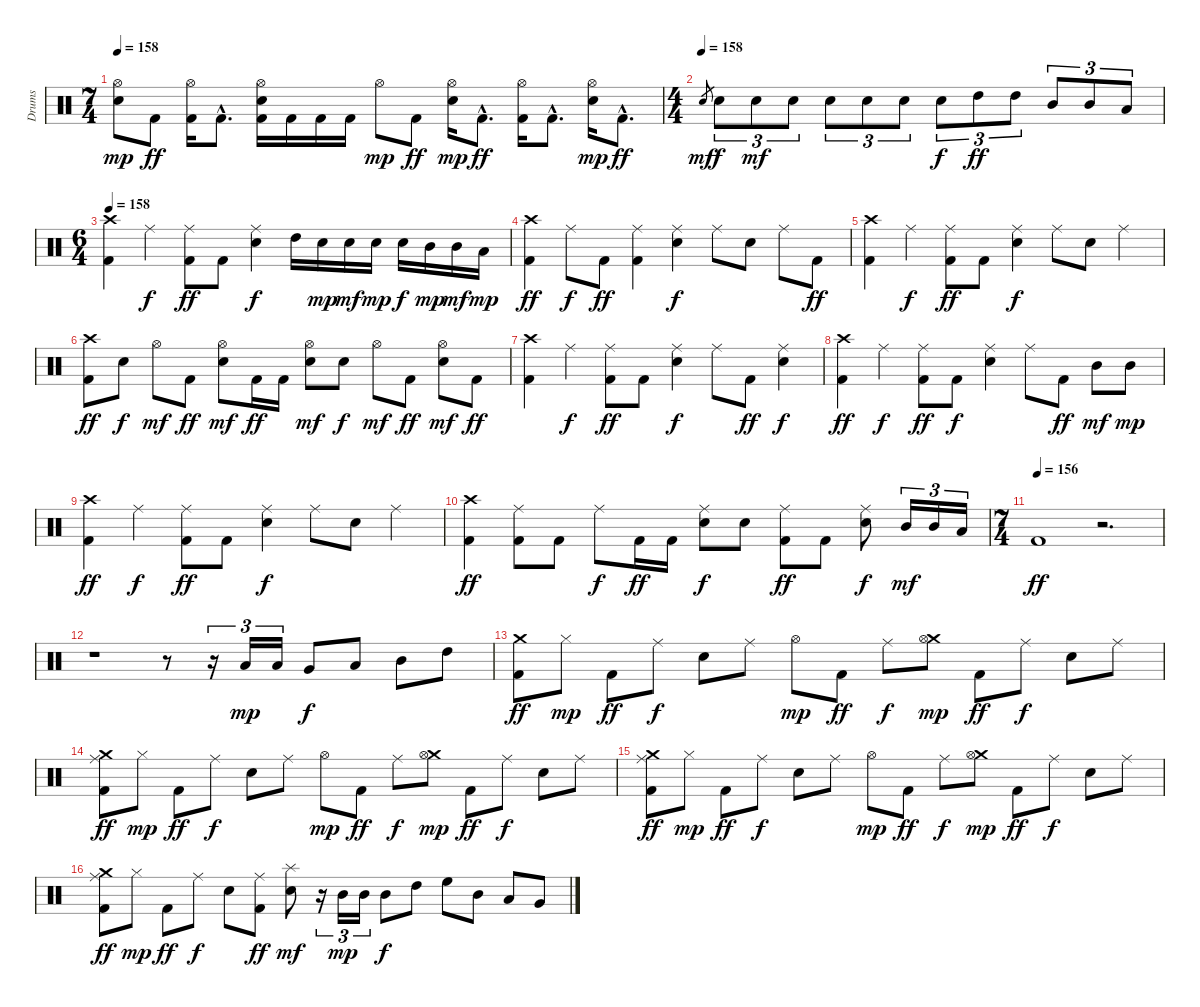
\track ("Drums" "Drums") {instrument percussion}
\staff {score}
\articulation defaults
\ts (7 4)
\tempo 158
\clef neutral
\ks c
("Hi-Hat (open)" "Electric Snare (hit)").8{dy mp} "Kick (hit) 2".8{dy ff} ("Hi-Hat (open)" "Kick (hit) 2").16 "Kick (hit) 2"{hac}.8{d} ("Hi-Hat (open)" "Electric Snare (hit)" "Kick (hit) 2").16 "Kick (hit) 2".16 "Kick (hit) 2".16 "Kick (hit) 2".16 "Hi-Hat (open)".8{dy mp} "Kick (hit) 2".8{dy ff} ("Hi-Hat (open)" "Electric Snare (hit)").16{dy mp} "Kick (hit) 2"{hac}.8{d dy ff} ("Hi-Hat (open)" "Kick (hit) 2").16 "Kick (hit) 2"{hac}.8{d} ("Hi-Hat (open)" "Electric Snare (hit)").16{dy mp} "Kick (hit) 2"{hac}.8{d dy ff} |
\ts (4 4)
\tempo (158)
"Electric Snare (hit)".8{gr dy mf} "Electric Snare (hit)".8{tu (3 2) dy f} "Electric Snare (hit)".8{tu (3 2) dy mf} "Electric Snare (hit)".8{tu (3 2)} "Electric Snare (hit)".8{tu (3 2)} "Electric Snare (hit)".8{tu (3 2)} "Electric Snare (hit)".8{tu (3 2)} "Electric Snare (hit)".8{tu (3 2) dy f} "High Tom (hit)".8{tu (3 2) dy ff} "High Tom (hit)".8{tu (3 2)} "Mid Tom (hit)".8{tu (3 2)} "Mid Tom (hit)".8{tu (3 2)} "Low Tom (hit)".8{tu (3 2)} |
\ts (6 4)
\tempo 158
("Crash high (hit)" "Kick (hit) 2").4 "Ride (middle)".4{dy f} ("Ride (middle)" "Kick (hit) 2").8{dy ff} "Kick (hit) 2".8 ("Ride (middle)" "Electric Snare (hit)").4{dy f} "High Tom (hit)".16 "Electric Snare (hit)".16{dy mp} "Electric Snare (hit)".16{dy mf} "Electric Snare (hit)".16{dy mp} "Electric Snare (hit)".16{dy f} "Mid Tom (hit)".16{dy mp} "Mid Tom (hit)".16{dy mf} "Low Tom (hit)".16{dy mp} |
("Crash high (hit)" "Kick (hit) 2").4{dy ff} "Ride (middle)".8{dy f} "Kick (hit) 2".8{dy ff} ("Ride (middle)" "Kick (hit) 2").4 ("Ride (middle)" "Electric Snare (hit)").4{dy f} "Ride (middle)".8 "Electric Snare (hit)".8 "Ride (middle)".8 "Kick (hit) 2".8{dy ff} |
("Crash high (hit)" "Kick (hit) 2").4 "Ride (middle)".4{dy f} ("Ride (middle)" "Kick (hit) 2").8{dy ff} "Kick (hit) 2".8 ("Ride (middle)" "Electric Snare (hit)").4{dy f} "Ride (middle)".8 "Electric Snare (hit)".8 "Ride (middle)".4 |
("Crash high (hit)" "Kick (hit) 2").8{dy ff} "Electric Snare (hit)".8{dy f} "Hi-Hat (open)".8{dy mf} "Kick (hit) 2".8{dy ff} ("Hi-Hat (open)" "Electric Snare (hit)").8{dy mf} "Kick (hit) 2".16{dy ff} "Kick (hit) 2".16 ("Hi-Hat (open)" "Electric Snare (hit)").8{dy mf} "Electric Snare (hit)".8{dy f} "Hi-Hat (open)".8{dy mf} "Kick (hit) 2".8{dy ff} ("Hi-Hat (open)" "Electric Snare (hit)").8{dy mf} "Kick (hit) 2".8{dy ff} |
("Crash high (hit)" "Kick (hit) 2").4 "Ride (middle)".4{dy f} ("Ride (middle)" "Kick (hit) 2").8{dy ff} "Kick (hit) 2".8 ("Ride (middle)" "Electric Snare (hit)").4{dy f} "Ride (middle)".8 "Kick (hit) 2".8{dy ff} ("Ride (middle)" "Electric Snare (hit)").4{dy f} |
("Crash high (hit)" "Kick (hit) 2").4{dy ff} "Ride (middle)".4{dy f} ("Ride (middle)" "Kick (hit) 2").8{dy ff} "Kick (hit) 2".8{dy f} ("Ride (middle)" "Electric Snare (hit)").4 "Ride (middle)".8 "Kick (hit) 2".8{dy ff} "Mid Tom (hit)".8{dy mf} "Mid Tom (hit)".8{dy mp} |
("Crash high (hit)" "Kick (hit) 2").4{dy ff} "Ride (middle)".4{dy f} ("Ride (middle)" "Kick (hit) 2").8{dy ff} "Kick (hit) 2".8 ("Ride (middle)" "Electric Snare (hit)").4{dy f} "Ride (middle)".8 "Electric Snare (hit)".8 "Ride (middle)".4 |
("Crash high (hit)" "Kick (hit) 2").4{dy ff} ("Ride (middle)" "Kick (hit) 2").8 "Kick (hit) 2".8 "Ride (middle)".8{dy f} "Kick (hit) 2".16{dy ff} "Kick (hit) 2".16 ("Ride (middle)" "Electric Snare (hit)").8{dy f} "Electric Snare (hit)".8 ("Ride (middle)" "Kick (hit) 2").8{dy ff} "Kick (hit) 2".8 ("Ride (middle)" "Electric Snare (hit)").8{dy f} "Mid Tom (hit)".16{tu (3 2) dy mf} "Mid Tom (hit)".16{tu (3 2)} "Low Tom (hit)".16{tu (3 2)} |
\ts (7 4)
\tempo (156)
"Kick (hit) 2".1{dy ff} r.2{d} |
r.1 r.8 r.16{tu (3 2)} "Low Tom (hit)".16{tu (3 2) dy mp} "Low Tom (hit)".16{tu (3 2)} "Very Low Tom (hit)".8{dy f} "Low Tom (hit)".8 "Mid Tom (hit)".8 "High Tom (hit)".8 |
("Crash medium (hit)" "Kick (hit) 2").8{dy ff} "Hi-Hat (closed)".8{dy mp} "Kick (hit) 2".8{dy ff} "Ride (middle)".8{dy f} "Electric Snare (hit)".8 "Ride (middle)".8 "Hi-Hat (open)".8{dy mp} "Kick (hit) 2".8{dy ff} "Ride (middle)".8{dy f} ("Crash medium (hit)" "Hi-Hat (open)").8{dy mp} "Kick (hit) 2".8{dy ff} "Ride (middle)".8{dy f} "Electric Snare (hit)".8 "Ride (middle)".8 |
("Crash medium (hit)" "Ride (middle)" "Kick (hit) 2").8{dy ff} "Hi-Hat (closed)".8{dy mp} "Kick (hit) 2".8{dy ff} "Ride (middle)".8{dy f} "Electric Snare (hit)".8 "Ride (middle)".8 "Hi-Hat (open)".8{dy mp} "Kick (hit) 2".8{dy ff} "Ride (middle)".8{dy f} ("Crash medium (hit)" "Hi-Hat (open)").8{dy mp} "Kick (hit) 2".8{dy ff} "Ride (middle)".8{dy f} "Electric Snare (hit)".8 "Ride (middle)".8 |
("Crash medium (hit)" "Ride (middle)" "Kick (hit) 2").8{dy ff} "Hi-Hat (closed)".8{dy mp} "Kick (hit) 2".8{dy ff} "Ride (middle)".8{dy f} "Electric Snare (hit)".8 "Ride (middle)".8 "Hi-Hat (open)".8{dy mp} "Kick (hit) 2".8{dy ff} "Ride (middle)".8{dy f} ("Crash medium (hit)" "Hi-Hat (open)").8{dy mp} "Kick (hit) 2".8{dy ff} "Ride (middle)".8{dy f} "Electric Snare (hit)".8 "Ride (middle)".8 |
("Crash medium (hit)" "Ride (middle)" "Kick (hit) 2").8{dy ff} "Hi-Hat (closed)".8{dy mp} "Kick (hit) 2".8{dy ff} "Ride (middle)".8{dy f} "Electric Snare (hit)".8 ("Ride (middle)" "Kick (hit) 2").8{dy ff} ("Splash (hit)" "Electric Snare (hit)").8{dy mf} r.16{tu (3 2)} "Mid Tom (hit)".16{tu (3 2) dy mp} "Mid Tom (hit)".16{tu (3 2)} "Mid Tom (hit)".8{dy f} "High Tom (hit)".8 "High Floor Tom (hit)".8 "Mid Tom (hit)".8 "Low Tom (hit)".8 "Very Low Tom (hit)".8
